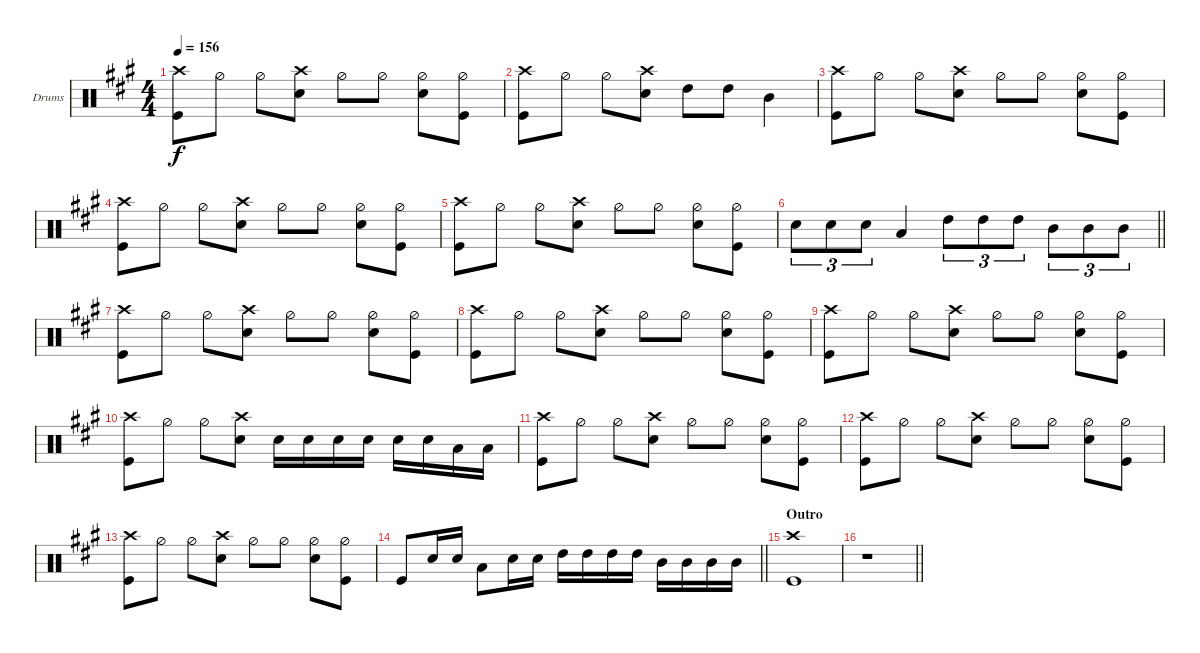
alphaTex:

\defaultSystemsLayout 4
\bracketExtendMode groupsimilarinstruments
\firstSystemTrackNameOrientation horizontal
\otherSystemsTrackNameOrientation horizontal
\track ("Drums" "Drums") {instrument percussion}
\staff {score}
\articulation defaults
\ts (4 4)
\tempo 156
\clef neutral
\ks a
("Kick (hit)" "Crash high (hit)").8{dy f} "Hi-Hat (half)".8 "Hi-Hat (half)".8 ("Snare (hit) 2" "Crash high (hit)").8 "Hi-Hat (half)".8 "Hi-Hat (half)".8 ("Snare (hit) 2" "Hi-Hat (half)").8 ("Hi-Hat (half)" "Kick (hit)").8 |
("Kick (hit)" "Crash high (hit)").8 "Hi-Hat (half)".8 "Hi-Hat (half)".8 ("Snare (hit) 2" "Crash high (hit)").8 "High Tom (hit)".8 "High Tom (hit)".8 "Mid Tom (hit)".4 |
("Kick (hit)" "Crash high (hit)").8 "Hi-Hat (half)".8 "Hi-Hat (half)".8 ("Snare (hit) 2" "Crash high (hit)").8 "Hi-Hat (half)".8 "Hi-Hat (half)".8 ("Snare (hit) 2" "Hi-Hat (half)").8 ("Hi-Hat (half)" "Kick (hit)").8 |
("Kick (hit)" "Crash high (hit)").8 "Hi-Hat (half)".8 "Hi-Hat (half)".8 ("Snare (hit) 2" "Crash high (hit)").8 "Hi-Hat (half)".8 "Hi-Hat (half)".8 ("Snare (hit) 2" "Hi-Hat (half)").8 ("Hi-Hat (half)" "Kick (hit)").8 |
("Kick (hit)" "Crash high (hit)").8 "Hi-Hat (half)".8 "Hi-Hat (half)".8 ("Snare (hit) 2" "Crash high (hit)").8 "Hi-Hat (half)".8 "Hi-Hat (half)".8 ("Snare (hit) 2" "Hi-Hat (half)").8 ("Hi-Hat (half)" "Kick (hit)").8 |
\barLineRight lightlight "Snare (hit) 2".8{tu (3 2)} "Snare (hit) 2".8{tu (3 2)} "Snare (hit) 2".8{tu (3 2)} "Low Tom (hit)".4 "High Tom (hit)".8{tu (3 2)} "High Tom (hit)".8{tu (3 2)} "High Tom (hit)".8{tu (3 2)} "Mid Tom (hit)".8{tu (3 2)} "Mid Tom (hit)".8{tu (3 2)} "Mid Tom (hit)".8{tu (3 2)}
|
("Kick (hit)" "Crash high (hit)").8 "Hi-Hat (half)".8 "Hi-Hat (half)".8 ("Snare (hit) 2" "Crash high (hit)").8 "Hi-Hat (half)".8 "Hi-Hat (half)".8 ("Snare (hit) 2" "Hi-Hat (half)").8 ("Hi-Hat (half)" "Kick (hit)").8 |
("Kick (hit)" "Crash high (hit)").8 "Hi-Hat (half)".8 "Hi-Hat (half)".8 ("Snare (hit) 2" "Crash high (hit)").8 "Hi-Hat (half)".8 "Hi-Hat (half)".8 ("Snare (hit) 2" "Hi-Hat (half)").8 ("Hi-Hat (half)" "Kick (hit)").8 |
("Kick (hit)" "Crash high (hit)").8 "Hi-Hat (half)".8 "Hi-Hat (half)".8 ("Snare (hit) 2" "Crash high (hit)").8 "Hi-Hat (half)".8 "Hi-Hat (half)".8 ("Snare (hit) 2" "Hi-Hat (half)").8 ("Hi-Hat (half)" "Kick (hit)").8 |
("Kick (hit)" "Crash high (hit)").8 "Hi-Hat (half)".8 "Hi-Hat (half)".8 ("Snare (hit) 2" "Crash high (hit)").8 "Snare (hit) 2".16 "Snare (hit) 2".16 "Snare (hit) 2".16 "Snare (hit) 2".16 "Snare (hit) 2".16 "Snare (hit) 2".16 "Low Tom (hit)".16 "Low Tom (hit)".16 |
("Kick (hit)" "Crash high (hit)").8 "Hi-Hat (half)".8 "Hi-Hat (half)".8 ("Snare (hit) 2" "Crash high (hit)").8 "Hi-Hat (half)".8 "Hi-Hat (half)".8 ("Snare (hit) 2" "Hi-Hat (half)").8 ("Hi-Hat (half)" "Kick (hit)").8 |
("Kick (hit)" "Crash high (hit)").8 "Hi-Hat (half)".8 "Hi-Hat (half)".8 ("Snare (hit) 2" "Crash high (hit)").8 "Hi-Hat (half)".8 "Hi-Hat (half)".8 ("Snare (hit) 2" "Hi-Hat (half)").8 ("Hi-Hat (half)" "Kick (hit)").8 |
("Kick (hit)" "Crash high (hit)").8 "Hi-Hat (half)".8 "Hi-Hat (half)".8 ("Snare (hit) 2" "Crash high (hit)").8 "Hi-Hat (half)".8 "Hi-Hat (half)".8 ("Snare (hit) 2" "Hi-Hat (half)").8 ("Hi-Hat (half)" "Kick (hit)").8 |
\barLineRight lightlight "Kick (hit)".8 "Snare (hit) 2".16 "Snare (hit) 2".16 "Low Tom (hit)".8 "Snare (hit) 2".16 "Snare (hit) 2".16 "High Tom (hit)".16 "High Tom (hit)".16 "High Tom (hit)".16 "High Tom (hit)".16 "Mid Tom (hit)".16 "Mid Tom (hit)".16 "Mid Tom (hit)".16 "Mid Tom (hit)".16
|
\section ("" "Outro")
("Crash high (hit)" "Kick (hit)").1 |
\barLineRight lightlight
r.1
